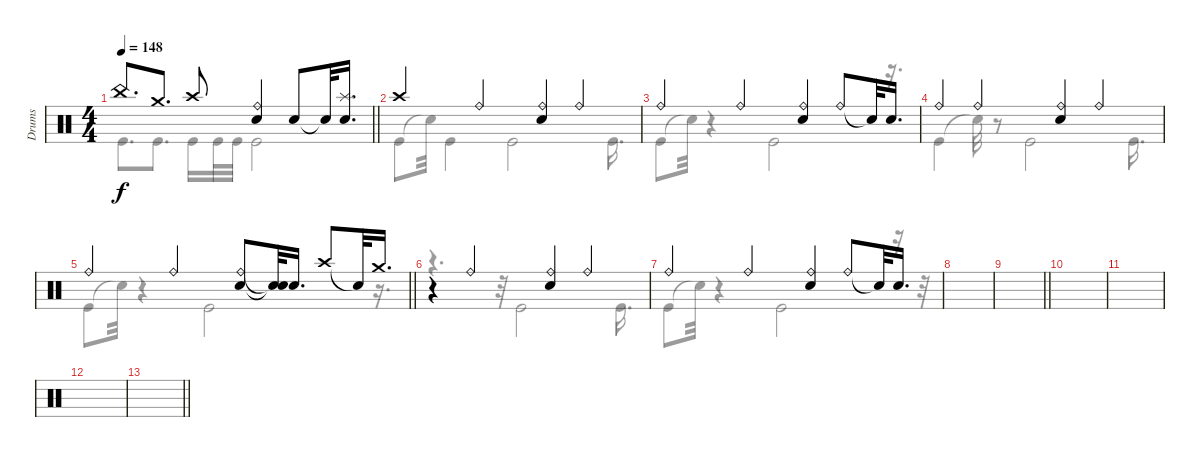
\track ("Drums" "Drums") {instrument percussion}
\staff
\articulation defaults
\voice
\ts (4 4)
\tempo 148
\clef neutral
\barLineRight lightlight
\ks c "China (hit)".8{d dy f} "Crash medium (hit)".8{d} "Crash high (hit)".8
("Ride (bell)" "Electric Snare (hit)").4 "Electric Snare (hit)".8 "Snare (hit)"{t}.32 ("Splash (hit)" "Electric Snare (hit)").16{d} |
\section ("" "")
"Crash high (hit)".4 "Ride (bell)".4 ("Ride (bell)" "Electric Snare (hit)").4 "Ride (bell)".4 |
"Ride (bell)".4 "Ride (bell)".4 ("Ride (bell)" "Electric Snare (hit)").4 "Ride (bell)".8 "Snare (hit)"{t}.32 "Electric Snare (hit)".16{d} |
"Ride (bell)".4 "Ride (bell)".4 ("Ride (bell)" "Electric Snare (hit)").4 "Ride (bell)".4 |
\barLineRight lightlight "Ride (bell)".4 "Ride (bell)".4
("Ride (bell)" "Electric Snare (hit)").8 ("Snare (hit)"{t} "Snare (hit)"{t}).32 "Electric Snare (hit)".16{d} "Crash high (hit)".8 "Snare (hit)"{t}.32 "Crash medium (hit)".16{d} |
r.4 "Ride (bell)".4 ("Ride (bell)" "Electric Snare (hit)").4 "Ride (bell)".4 |
"Ride (bell)".4 "Ride (bell)".4 ("Ride (bell)" "Electric Snare (hit)").4 "Ride (bell)".8 "Snare (hit)"{t}.32 "Electric Snare (hit)".16{d} |
|
\barLineRight lightlight
|
|
|
|
\barLineRight lightlight
|
|
|
\voice
\clef neutral
\ottava regular
\simile none
\barLineRight lightlight
\ks c "Kick (hit)".8{d dy f} "Kick (hit)".8{d} "Kick (hit)".16 "Kick (hit)".32 "Kick (hit)".32 "Kick (hit)".2
|
"Kick (hit)".8 "Snare (hit)"{t}.32 "Kick (hit)".4 "Kick (hit)".2 "Kick (hit)".16{d} |
"Kick (hit)".8 "Snare (hit)"{t}.32 r.4 "Kick (hit)".2 r.16{d} |
"Kick (hit)".4 "Snare (hit)"{t}.32 r.8 "Kick (hit)".2 "Kick (hit)".16{d} |
\barLineRight lightlight "Kick (hit)".8 "Snare (hit)"{t}.32
r.4 "Kick (hit)".2 r.16{d} |
r.4{d} r.32 "Kick (hit)".2 "Kick (hit)".16{d} |
"Kick (hit)".8 "Snare (hit)"{t}.32 r.4 "Kick (hit)".2 r.16 r.32 |
|
\barLineRight lightlight
|
|
|
|
\barLineRight lightlight
|
|
|
